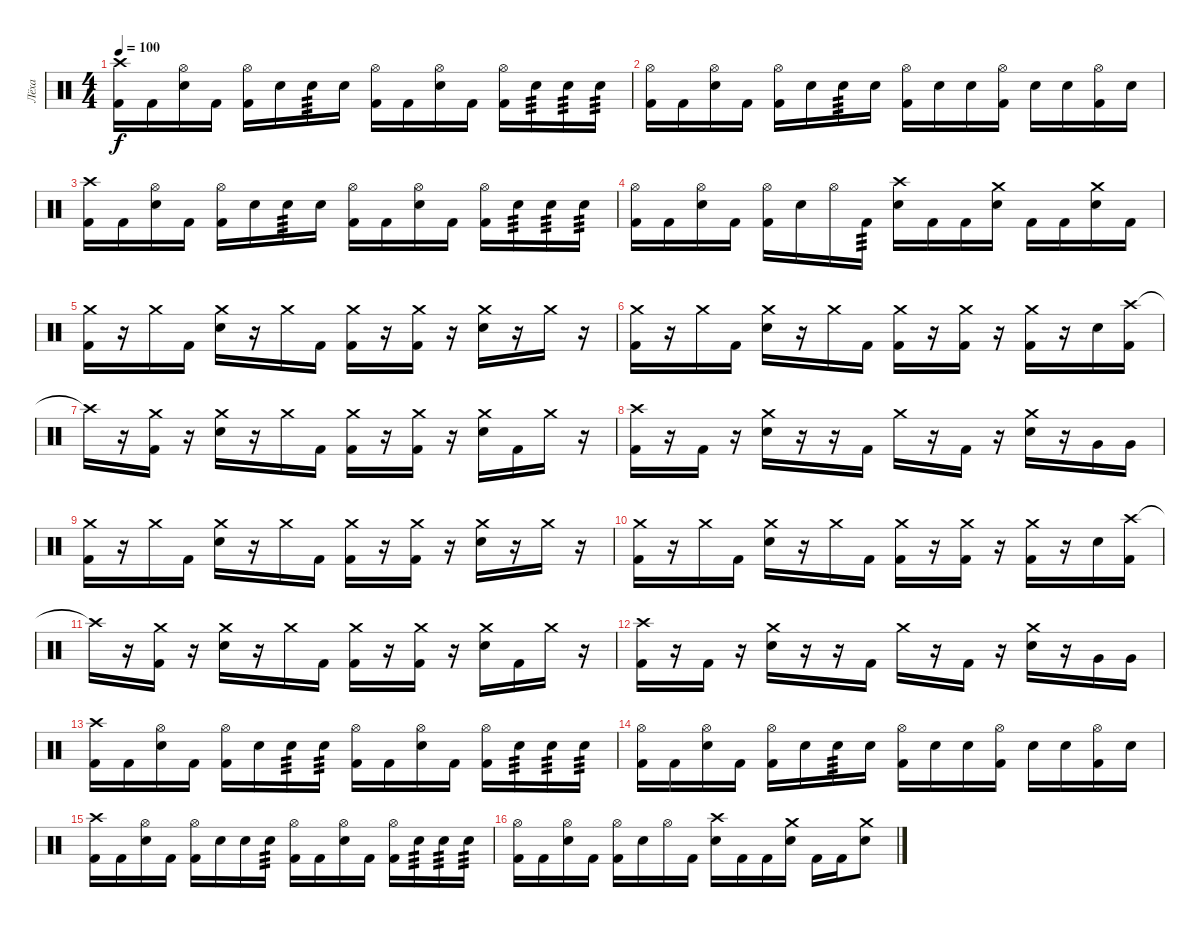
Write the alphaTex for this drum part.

\track ("Лёха" "Лёха") {instrument percussion}
\staff {score}
\articulation defaults
\ts (4 4)
\tempo 100
\clef neutral
\ks c
("Crash high (hit)" "Kick (hit) 2").16{dy f} "Kick (hit) 2".16 ("Hi-Hat (open)" "Electric Snare (hit)").16 "Kick (hit) 2".16 ("Hi-Hat (open)" "Kick (hit) 2").16 "Electric Snare (hit)".16 "Electric Snare (hit)".16{tp 3} "Electric Snare (hit)".16 ("Hi-Hat (open)" "Kick (hit) 2").16 "Kick (hit) 2".16 ("Hi-Hat (open)" "Electric Snare (hit)").16 "Kick (hit) 2".16 ("Hi-Hat (open)" "Kick (hit) 2").16 "Electric Snare (hit)".16{tp 3} "Electric Snare (hit)".16{tp 3} "Electric Snare (hit)".16{tp 3} |
("Hi-Hat (open)" "Kick (hit) 2").16 "Kick (hit) 2".16 ("Hi-Hat (open)" "Electric Snare (hit)").16 "Kick (hit) 2".16 ("Hi-Hat (open)" "Kick (hit) 2").16 "Electric Snare (hit)".16 "Electric Snare (hit)".16{tp 3} "Electric Snare (hit)".16 ("Hi-Hat (open)" "Kick (hit) 2").16 "Electric Snare (hit)".16 "Electric Snare (hit)".16 ("Hi-Hat (open)" "Kick (hit) 2").16 "Electric Snare (hit)".16 "Electric Snare (hit)".16 ("Hi-Hat (open)" "Kick (hit) 2").16 "Electric Snare (hit)".16 |
("Crash high (hit)" "Kick (hit) 2").16 "Kick (hit) 2".16 ("Hi-Hat (open)" "Electric Snare (hit)").16 "Kick (hit) 2".16 ("Hi-Hat (open)" "Kick (hit) 2").16 "Electric Snare (hit)".16 "Electric Snare (hit)".16{tp 3} "Electric Snare (hit)".16 ("Hi-Hat (open)" "Kick (hit) 2").16 "Kick (hit) 2".16 ("Hi-Hat (open)" "Electric Snare (hit)").16 "Kick (hit) 2".16 ("Hi-Hat (open)" "Kick (hit) 2").16 "Electric Snare (hit)".16{tp 3} "Electric Snare (hit)".16{tp 3} "Electric Snare (hit)".16{tp 3} |
("Hi-Hat (open)" "Kick (hit) 2").16 "Kick (hit) 2".16 ("Hi-Hat (open)" "Electric Snare (hit)").16 "Kick (hit) 2".16 ("Hi-Hat (open)" "Kick (hit) 2").16 "Electric Snare (hit)".16 "Hi-Hat (open)".16 "Kick (hit) 2".16{tp 3} ("Crash high (hit)" "Electric Snare (hit)").16 "Kick (hit) 2".16 "Kick (hit) 2".16 ("Crash medium (hit)" "Electric Snare (hit)").16 "Kick (hit) 2".16 "Kick (hit) 2".16 ("Crash medium (hit)" "Electric Snare (hit)").16 "Kick (hit) 2".16 |
("Crash medium (hit)" "Kick (hit) 2").16 r.16 "Crash medium (hit)".16 "Kick (hit) 2".16 ("Crash medium (hit)" "Electric Snare (hit)").16 r.16 "Crash medium (hit)".16 "Kick (hit) 2".16 ("Crash medium (hit)" "Kick (hit) 2").16 r.16 ("Crash medium (hit)" "Kick (hit) 2").16 r.16 ("Crash medium (hit)" "Electric Snare (hit)").16 r.16 "Crash medium (hit)".16 r.16 |
("Crash medium (hit)" "Kick (hit) 2").16 r.16 "Crash medium (hit)".16 "Kick (hit) 2".16 ("Crash medium (hit)" "Electric Snare (hit)").16 r.16 "Crash medium (hit)".16 "Kick (hit) 2".16 ("Crash medium (hit)" "Kick (hit) 2").16 r.16 ("Crash medium (hit)" "Kick (hit) 2").16 r.16 ("Crash medium (hit)" "Kick (hit) 2").16 r.16 "Electric Snare (hit)".16 ("Crash high (hit)" "Kick (hit) 2").16 |
"Crash high (hit)"{t}.16 r.16 ("Crash medium (hit)" "Kick (hit) 2").16 r.16 ("Crash medium (hit)" "Electric Snare (hit)").16 r.16 "Crash medium (hit)".16 "Kick (hit) 2".16 ("Crash medium (hit)" "Kick (hit) 2").16 r.16 ("Crash medium (hit)" "Kick (hit) 2").16 r.16 ("Crash medium (hit)" "Electric Snare (hit)").16 "Kick (hit) 2".16 "Crash medium (hit)".16 r.16 |
("Crash high (hit)" "Kick (hit) 2").16 r.16 "Kick (hit) 2".16 r.16 ("Crash medium (hit)" "Electric Snare (hit)").16 r.16 r.16 "Kick (hit) 2".16 "Crash medium (hit)".16 r.16 "Kick (hit) 2".16 r.16 ("Crash medium (hit)" "Electric Snare (hit)").16 r.16 "Very Low Tom (hit)".16 "Very Low Tom (hit)".16 |
("Crash medium (hit)" "Kick (hit) 2").16 r.16 "Crash medium (hit)".16 "Kick (hit) 2".16 ("Crash medium (hit)" "Electric Snare (hit)").16 r.16 "Crash medium (hit)".16 "Kick (hit) 2".16 ("Crash medium (hit)" "Kick (hit) 2").16 r.16 ("Crash medium (hit)" "Kick (hit) 2").16 r.16 ("Crash medium (hit)" "Electric Snare (hit)").16 r.16 "Crash medium (hit)".16 r.16 |
("Crash medium (hit)" "Kick (hit) 2").16 r.16 "Crash medium (hit)".16 "Kick (hit) 2".16 ("Crash medium (hit)" "Electric Snare (hit)").16 r.16 "Crash medium (hit)".16 "Kick (hit) 2".16 ("Crash medium (hit)" "Kick (hit) 2").16 r.16 ("Crash medium (hit)" "Kick (hit) 2").16 r.16 ("Crash medium (hit)" "Kick (hit) 2").16 r.16 "Electric Snare (hit)".16 ("Crash high (hit)" "Kick (hit) 2").16 |
"Crash high (hit)"{t}.16 r.16 ("Crash medium (hit)" "Kick (hit) 2").16 r.16 ("Crash medium (hit)" "Electric Snare (hit)").16 r.16 "Crash medium (hit)".16 "Kick (hit) 2".16 ("Crash medium (hit)" "Kick (hit) 2").16 r.16 ("Crash medium (hit)" "Kick (hit) 2").16 r.16 ("Crash medium (hit)" "Electric Snare (hit)").16 "Kick (hit) 2".16 "Crash medium (hit)".16 r.16 |
("Crash high (hit)" "Kick (hit) 2").16 r.16 "Kick (hit) 2".16 r.16 ("Crash medium (hit)" "Electric Snare (hit)").16 r.16 r.16 "Kick (hit) 2".16 "Crash medium (hit)".16 r.16 "Kick (hit) 2".16 r.16 ("Crash medium (hit)" "Electric Snare (hit)").16 r.16 "Very Low Tom (hit)".16 "Very Low Tom (hit)".16 |
("Crash high (hit)" "Kick (hit) 2").16 "Kick (hit) 2".16 ("Hi-Hat (open)" "Electric Snare (hit)").16 "Kick (hit) 2".16 ("Hi-Hat (open)" "Kick (hit) 2").16 "Electric Snare (hit)".16 "Electric Snare (hit)".16{tp 3} "Electric Snare (hit)".16{tp 3} ("Hi-Hat (open)" "Kick (hit) 2").16 "Kick (hit) 2".16 ("Hi-Hat (open)" "Electric Snare (hit)").16 "Kick (hit) 2".16 ("Hi-Hat (open)" "Kick (hit) 2").16 "Electric Snare (hit)".16{tp 3} "Electric Snare (hit)".16{tp 3} "Electric Snare (hit)".16{tp 3} |
("Hi-Hat (open)" "Kick (hit) 2").16 "Kick (hit) 2".16 ("Hi-Hat (open)" "Electric Snare (hit)").16 "Kick (hit) 2".16 ("Hi-Hat (open)" "Kick (hit) 2").16 "Electric Snare (hit)".16 "Electric Snare (hit)".16{tp 3} "Electric Snare (hit)".16 ("Hi-Hat (open)" "Kick (hit) 2").16 "Electric Snare (hit)".16 "Electric Snare (hit)".16 ("Hi-Hat (open)" "Kick (hit) 2").16 "Electric Snare (hit)".16 "Electric Snare (hit)".16 ("Hi-Hat (open)" "Kick (hit) 2").16 "Electric Snare (hit)".16 |
("Crash high (hit)" "Kick (hit) 2").16 "Kick (hit) 2".16 ("Hi-Hat (open)" "Electric Snare (hit)").16 "Kick (hit) 2".16 ("Hi-Hat (open)" "Kick (hit) 2").16 "Electric Snare (hit)".16 "Electric Snare (hit)".16 "Electric Snare (hit)".16{tp 3} ("Hi-Hat (open)" "Kick (hit) 2").16 "Kick (hit) 2".16 ("Hi-Hat (open)" "Electric Snare (hit)").16 "Kick (hit) 2".16 ("Hi-Hat (open)" "Kick (hit) 2").16 "Electric Snare (hit)".16{tp 3} "Electric Snare (hit)".16{tp 3} "Electric Snare (hit)".16{tp 3} |
("Hi-Hat (open)" "Kick (hit) 2").16 "Kick (hit) 2".16 ("Hi-Hat (open)" "Electric Snare (hit)").16 "Kick (hit) 2".16 ("Hi-Hat (open)" "Kick (hit) 2").16 "Electric Snare (hit)".16 "Hi-Hat (open)".16 "Kick (hit) 2".16 ("Crash high (hit)" "Electric Snare (hit)").16 "Kick (hit) 2".16 "Kick (hit) 2".16 ("Crash medium (hit)" "Electric Snare (hit)").16 "Kick (hit) 2".16 "Kick (hit) 2".16 ("Crash medium (hit)" "Electric Snare (hit)").8
